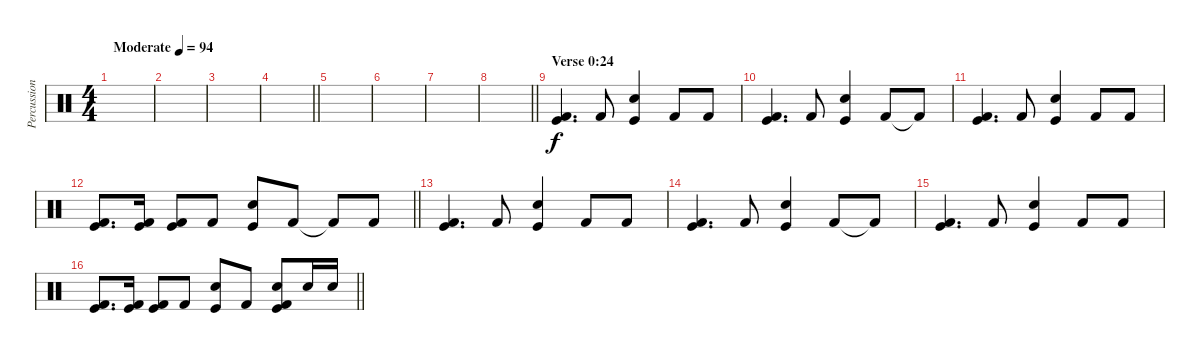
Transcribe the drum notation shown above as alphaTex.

\track ("Percussion" "Percussion") {instrument percussion}
\staff {score}
\articulation defaults
\ts (4 4)
\tempo (94 "Moderate")
\clef neutral
\ks c
|
|
|
\barLineRight lightlight
|
|
|
|
\barLineRight lightlight
|
\section ("" "Verse 0:24")
("Kick (hit)" "Kick (hit) 2").4{d} "Kick (hit) 2".8 ("Electric Snare (hit)" "Kick (hit)").4 "Kick (hit) 2".8 "Kick (hit) 2".8 |
("Kick (hit)" "Kick (hit) 2").4{d} "Kick (hit) 2".8 ("Electric Snare (hit)" "Kick (hit)").4 "Kick (hit) 2".8 "Kick (hit) 2"{t}.8 |
("Kick (hit)" "Kick (hit) 2").4{d} "Kick (hit) 2".8 ("Electric Snare (hit)" "Kick (hit)").4 "Kick (hit) 2".8 "Kick (hit) 2".8 |
\barLineRight lightlight
("Kick (hit)" "Kick (hit) 2").8{d} ("Kick (hit)" "Kick (hit) 2").16 ("Kick (hit)" "Kick (hit) 2").8 "Kick (hit) 2".8 ("Electric Snare (hit)" "Kick (hit)").8 "Kick (hit) 2".8 "Kick (hit) 2"{t}.8 "Kick (hit) 2".8 |
("Kick (hit)" "Kick (hit) 2").4{d} "Kick (hit) 2".8 ("Electric Snare (hit)" "Kick (hit)").4 "Kick (hit) 2".8 "Kick (hit) 2".8 |
("Kick (hit)" "Kick (hit) 2").4{d} "Kick (hit) 2".8 ("Electric Snare (hit)" "Kick (hit)").4 "Kick (hit) 2".8 "Kick (hit) 2"{t}.8 |
("Kick (hit)" "Kick (hit) 2").4{d} "Kick (hit) 2".8 ("Electric Snare (hit)" "Kick (hit)").4 "Kick (hit) 2".8 "Kick (hit) 2".8 |
\barLineRight lightlight
("Kick (hit)" "Kick (hit) 2").8{d} ("Kick (hit)" "Kick (hit) 2").16 ("Kick (hit)" "Kick (hit) 2").8 "Kick (hit) 2".8 ("Electric Snare (hit)" "Kick (hit)").8 "Kick (hit) 2".8 ("Electric Snare (hit)" "Kick (hit)" "Kick (hit) 2").8 "Electric Snare (hit)".16 "Electric Snare (hit)".16
